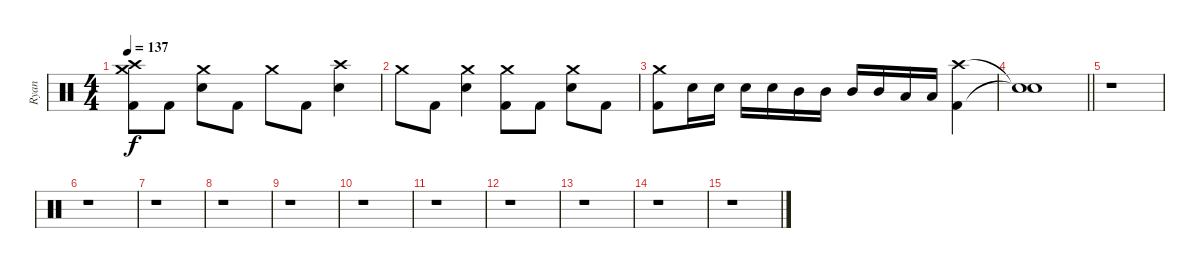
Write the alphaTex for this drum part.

\track ("Ryan" "Ryan") {instrument percussion}
\staff {score}
\articulation defaults
\ts (4 4)
\tempo 137
\clef neutral
\ks c
("Crash medium (hit)" "Crash high (hit)" "Kick (hit) 2").8{dy f} "Kick (hit) 2".8 ("Crash medium (hit)" "Electric Snare (hit)").8 "Kick (hit) 2".8 "Crash medium (hit)".8 "Kick (hit) 2".8 ("Crash high (hit)" "Electric Snare (hit)").4 |
"Crash medium (hit)".8 "Kick (hit) 2".8 ("Crash medium (hit)" "Electric Snare (hit)").4 ("Crash medium (hit)" "Kick (hit) 2").8 "Kick (hit) 2".8 ("Crash medium (hit)" "Electric Snare (hit)").8 "Kick (hit) 2".8 |
("Crash medium (hit)" "Kick (hit) 2").8 "Electric Snare (hit)".16 "Electric Snare (hit)".16 "Electric Snare (hit)".16 "Electric Snare (hit)".16 "Mid Tom (hit)".16 "Mid Tom (hit)".16 "Mid Tom (hit)".16 "Mid Tom (hit)".16 "Low Tom (hit)".16 "Low Tom (hit)".16 ("Crash high (hit)" "Kick (hit) 2").4 |
\barLineRight lightlight
("Snare (hit)"{t} "Snare (hit)"{t}).1 |
r.1 |
r.1 |
r.1 |
r.1 |
r.1 |
r.1 |
r.1 |
r.1 |
r.1 |
r.1 |
r.1
